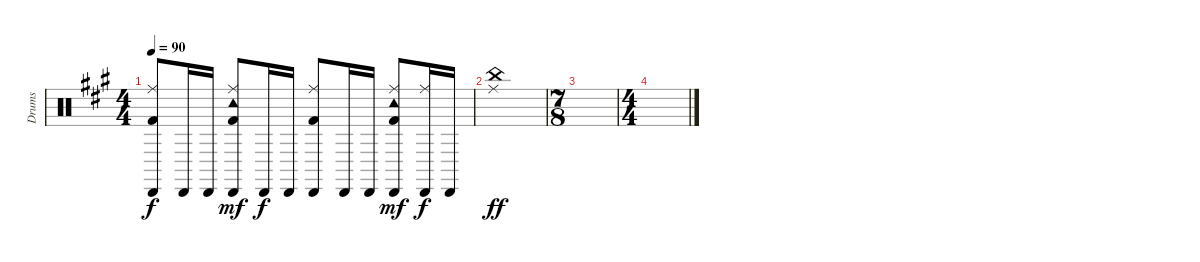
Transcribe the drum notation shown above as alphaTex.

\track ("Drums" "Drums") {instrument percussion}
\staff {score}
\articulation defaults
\ts (4 4)
\tempo 90
\clef neutral
\ks a
("Ride (middle)" "Cabasa (hit)" "Kick (hit) 2").8{dy f} "Cabasa (hit)".16 "Cabasa (hit)".16 ("Ride (middle)" "Tambourine (hit)" "Cabasa (hit)" "Kick (hit) 2").8{dy mf} "Cabasa (hit)".16{dy f} "Cabasa (hit)".16 ("Ride (middle)" "Cabasa (hit)" "Kick (hit) 2").8 "Cabasa (hit)".16 "Cabasa (hit)".16 ("Ride (middle)" "Tambourine (hit)" "Cabasa (hit)" "Kick (hit) 2").8{dy mf} ("Ride (middle)" "Cabasa (hit)").16{dy f} "Cabasa (hit)".16 |
("China (hit)" "Ride (middle)").1{dy ff} |
\ts (7 8)
|
\ts (4 4)
